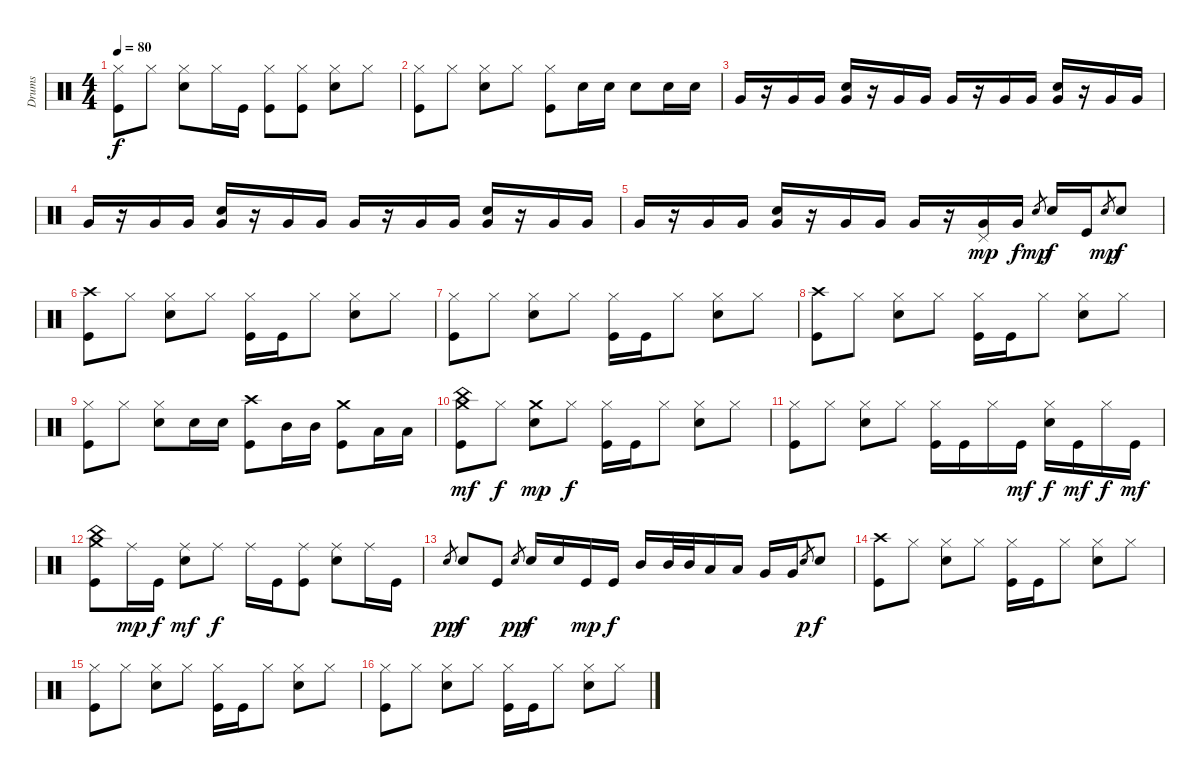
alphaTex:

\track ("Drums" "Drums") {instrument percussion}
\staff {score}
\articulation defaults
\ts (4 4)
\tempo 80
\clef neutral
\ks c
("Hi-Hat (closed)" "Kick (hit)").8{dy f} "Hi-Hat (closed)".8 ("Hi-Hat (closed)" "Snare (hit) 2").8 "Hi-Hat (closed)".16 "Kick (hit)".16 ("Hi-Hat (closed)" "Kick (hit)").8 ("Hi-Hat (closed)" "Kick (hit)").8 ("Hi-Hat (closed)" "Snare (hit) 2").8 "Hi-Hat (closed)".8 |
("Hi-Hat (closed)" "Kick (hit)").8 "Hi-Hat (closed)".8 ("Hi-Hat (closed)" "Snare (hit) 2").8 "Hi-Hat (closed)".8 ("Hi-Hat (closed)" "Kick (hit)").8 "Snare (hit) 2".16 "Snare (hit) 2".16 "Snare (hit) 2".8 "Snare (hit) 2".16 "Snare (hit) 2".16 |
"Very Low Tom (hit)".16 r.16 "Very Low Tom (hit)".16 "Very Low Tom (hit)".16 ("Snare (hit) 2" "Very Low Tom (hit)").16 r.16 "Very Low Tom (hit)".16 "Very Low Tom (hit)".16 "Very Low Tom (hit)".16 r.16 "Very Low Tom (hit)".16 "Very Low Tom (hit)".16 ("Snare (hit) 2" "Very Low Tom (hit)").16 r.16 "Very Low Tom (hit)".16 "Very Low Tom (hit)".16 |
"Very Low Tom (hit)".16 r.16 "Very Low Tom (hit)".16 "Very Low Tom (hit)".16 ("Snare (hit) 2" "Very Low Tom (hit)").16 r.16 "Very Low Tom (hit)".16 "Very Low Tom (hit)".16 "Very Low Tom (hit)".16 r.16 "Very Low Tom (hit)".16 "Very Low Tom (hit)".16 ("Snare (hit) 2" "Very Low Tom (hit)").16 r.16 "Very Low Tom (hit)".16 "Very Low Tom (hit)".16 |
"Very Low Tom (hit)".16 r.16 "Very Low Tom (hit)".16 "Very Low Tom (hit)".16 ("Snare (hit) 2" "Very Low Tom (hit)").16 r.16 "Very Low Tom (hit)".16 "Very Low Tom (hit)".16 "Very Low Tom (hit)".16 r.16 ("Pedal Hi-Hat (hit)" "Very Low Tom (hit)").16{dy mp} "Very Low Tom (hit)".16{dy f} "Snare (hit) 2".8{gr dy mp} "Snare (hit) 2".16{dy f} "Kick (hit)".16 "Snare (hit) 2".8{gr dy mp} "Snare (hit) 2".8{dy f} |
("Crash high (hit)" "Kick (hit)").8 "Hi-Hat (closed)".8 ("Hi-Hat (closed)" "Snare (hit) 2").8 "Hi-Hat (closed)".8 ("Hi-Hat (closed)" "Kick (hit)").16 "Kick (hit)".16 "Hi-Hat (closed)".8 ("Hi-Hat (closed)" "Snare (hit) 2").8 "Hi-Hat (closed)".8 |
("Hi-Hat (closed)" "Kick (hit)").8 "Hi-Hat (closed)".8 ("Hi-Hat (closed)" "Snare (hit) 2").8 "Hi-Hat (closed)".8 ("Hi-Hat (closed)" "Kick (hit)").16 "Kick (hit)".16 "Hi-Hat (closed)".8 ("Hi-Hat (closed)" "Snare (hit) 2").8 "Hi-Hat (closed)".8 |
("Crash high (hit)" "Kick (hit)").8 "Hi-Hat (closed)".8 ("Hi-Hat (closed)" "Snare (hit) 2").8 "Hi-Hat (closed)".8 ("Hi-Hat (closed)" "Kick (hit)").16 "Kick (hit)".16 "Hi-Hat (closed)".8 ("Hi-Hat (closed)" "Snare (hit) 2").8 "Hi-Hat (closed)".8 |
("Hi-Hat (closed)" "Kick (hit)").8 "Hi-Hat (closed)".8 ("Hi-Hat (closed)" "Snare (hit) 2").8 "Snare (hit) 2".16 "Snare (hit) 2".16 ("Crash high (hit)" "Kick (hit)").8 "Mid Tom (hit)".16 "Mid Tom (hit)".16 ("Crash medium (hit)" "Kick (hit)").8 "Low Tom (hit)".16 "Low Tom (hit)".16 |
("China (hit)" "Crash medium (hit)" "Kick (hit)").8{dy mf} "Hi-Hat (closed)".8{dy f} ("Crash medium (hit)" "Snare (hit) 2").8{dy mp} "Hi-Hat (closed)".8{dy f} ("Hi-Hat (closed)" "Kick (hit)").16 "Kick (hit)".16 "Hi-Hat (closed)".8 ("Hi-Hat (closed)" "Snare (hit) 2").8 "Hi-Hat (closed)".8 |
("Hi-Hat (closed)" "Kick (hit)").8 "Hi-Hat (closed)".8 ("Hi-Hat (closed)" "Snare (hit) 2").8 "Hi-Hat (closed)".8 ("Hi-Hat (closed)" "Kick (hit)").16 "Kick (hit)".16 "Hi-Hat (closed)".16 "Kick (hit)".16{dy mf} ("Hi-Hat (closed)" "Snare (hit) 2").16{dy f} "Kick (hit)".16{dy mf} "Hi-Hat (closed)".16{dy f} "Kick (hit)".16{dy mf} |
("China (hit)" "Crash medium (hit)" "Kick (hit)").8 "Ride (middle)".16{dy mp} "Kick (hit)".16{dy f} ("Ride (middle)" "Snare (hit) 2").8{dy mf} "Ride (middle)".8{dy f} "Ride (middle)".16 "Kick (hit)".16 ("Ride (middle)" "Kick (hit)").8 ("Ride (middle)" "Snare (hit) 2").8 "Ride (middle)".16 "Kick (hit)".16 |
"Snare (hit) 2".8{gr dy pp} "Snare (hit) 2".8{dy f} "Kick (hit)".8 "Snare (hit) 2".8{gr dy pp} "Snare (hit) 2".16{dy f} "Snare (hit) 2".16 "Kick (hit)".16{dy mp} "Kick (hit)".16{dy f} "Mid Tom (hit)".16 "Mid Tom (hit)".32 "Mid Tom (hit)".32 "Low Tom (hit)".16 "Low Tom (hit)".16 "Very Low Tom (hit)".16 "Very Low Tom (hit)".16 "Snare (hit) 2".8{gr dy p} "Snare (hit) 2".8{dy f} |
("Crash high (hit)" "Kick (hit)").8 "Hi-Hat (closed)".8 ("Hi-Hat (closed)" "Snare (hit) 2").8 "Hi-Hat (closed)".8 ("Hi-Hat (closed)" "Kick (hit)").16 "Kick (hit)".16 "Hi-Hat (closed)".8 ("Hi-Hat (closed)" "Snare (hit) 2").8 "Hi-Hat (closed)".8 |
("Hi-Hat (closed)" "Kick (hit)").8 "Hi-Hat (closed)".8 ("Hi-Hat (closed)" "Snare (hit) 2").8 "Hi-Hat (closed)".8 ("Hi-Hat (closed)" "Kick (hit)").16 "Kick (hit)".16 "Hi-Hat (closed)".8 ("Hi-Hat (closed)" "Snare (hit) 2").8 "Hi-Hat (closed)".8 |
("Hi-Hat (closed)" "Kick (hit)").8 "Hi-Hat (closed)".8 ("Hi-Hat (closed)" "Snare (hit) 2").8 "Hi-Hat (closed)".8 ("Hi-Hat (closed)" "Kick (hit)").16 "Kick (hit)".16 "Hi-Hat (closed)".8 ("Hi-Hat (closed)" "Snare (hit) 2").8 "Hi-Hat (closed)".8
